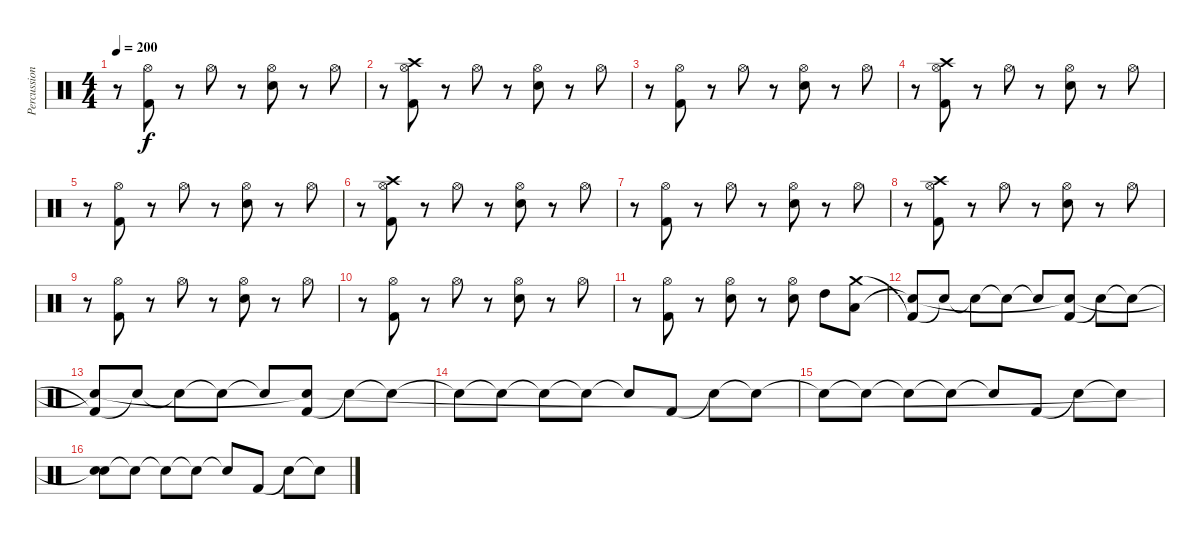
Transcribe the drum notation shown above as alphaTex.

\track ("Percussion" "Percussion") {instrument percussion}
\staff {score}
\articulation defaults
\ts (4 4)
\tempo 200
\clef neutral
\ks c
r.8{dy f} ("Kick (hit) 2" "Hi-Hat (open)").8 r.8 "Hi-Hat (open)".8 r.8 ("Snare (hit) 2" "Hi-Hat (open)").8 r.8 "Hi-Hat (open)".8 |
r.8 ("Kick (hit) 2" "Hi-Hat (open)" "Crash high (hit)").8 r.8 "Hi-Hat (open)".8 r.8 ("Snare (hit) 2" "Hi-Hat (open)").8 r.8 "Hi-Hat (open)".8 |
r.8 ("Kick (hit) 2" "Hi-Hat (open)").8 r.8 "Hi-Hat (open)".8 r.8 ("Snare (hit) 2" "Hi-Hat (open)").8 r.8 "Hi-Hat (open)".8 |
r.8 ("Kick (hit) 2" "Hi-Hat (open)" "Crash high (hit)").8 r.8 "Hi-Hat (open)".8 r.8 ("Snare (hit) 2" "Hi-Hat (open)").8 r.8 "Hi-Hat (open)".8 |
r.8 ("Kick (hit) 2" "Hi-Hat (open)").8 r.8 "Hi-Hat (open)".8 r.8 ("Snare (hit) 2" "Hi-Hat (open)").8 r.8 "Hi-Hat (open)".8 |
r.8 ("Kick (hit) 2" "Hi-Hat (open)" "Crash high (hit)").8 r.8 "Hi-Hat (open)".8 r.8 ("Snare (hit) 2" "Hi-Hat (open)").8 r.8 "Hi-Hat (open)".8 |
r.8 ("Kick (hit) 2" "Hi-Hat (open)").8 r.8 "Hi-Hat (open)".8 r.8 ("Snare (hit) 2" "Hi-Hat (open)").8 r.8 "Hi-Hat (open)".8 |
r.8 ("Kick (hit) 2" "Hi-Hat (open)" "Crash high (hit)").8 r.8 "Hi-Hat (open)".8 r.8 ("Snare (hit) 2" "Hi-Hat (open)").8 r.8 "Hi-Hat (open)".8 |
r.8 ("Kick (hit) 2" "Hi-Hat (open)").8 r.8 "Hi-Hat (open)".8 r.8 ("Snare (hit) 2" "Hi-Hat (open)").8 r.8 "Hi-Hat (open)".8 |
r.8 ("Kick (hit) 2" "Hi-Hat (open)").8 r.8 "Hi-Hat (open)".8 r.8 ("Snare (hit) 2" "Hi-Hat (open)").8 r.8 "Hi-Hat (open)".8 |
r.8 ("Kick (hit) 2" "Hi-Hat (open)").8 r.8 ("Snare (hit) 2" "Hi-Hat (open)").8 r.8 ("Snare (hit) 2" "Hi-Hat (open)").8 "High Tom (hit)".8 ("Crash medium (hit)" "Low Floor Tom (hit)").8 |
("Kick (hit) 2"{t} "Snare (hit)"{t}).8 "Snare (hit)"{t}.8 "Snare (hit)"{t}.8 "Snare (hit)"{t}.8 "Snare (hit)"{t}.8 ("Kick (hit) 2" "Snare (hit)"{t}).8 "Snare (hit)"{t}.8 "Snare (hit)"{t}.8 |
("Kick (hit) 2"{t} "Snare (hit)"{t}).8 "Snare (hit)"{t}.8 "Snare (hit)"{t}.8 "Snare (hit)"{t}.8 "Snare (hit)"{t}.8 ("Kick (hit) 2" "Snare (hit)"{t}).8 "Snare (hit)"{t}.8 "Snare (hit)"{t}.8 |
"Snare (hit)"{t}.8 "Snare (hit)"{t}.8 "Snare (hit)"{t}.8 "Snare (hit)"{t}.8 "Snare (hit)"{t}.8 "Kick (hit) 2".8 "Snare (hit)"{t}.8 "Snare (hit)"{t}.8 |
"Snare (hit)"{t}.8 "Snare (hit)"{t}.8 "Snare (hit)"{t}.8 "Hand Clap (hit)"{t}.8 "Snare (hit)"{t}.8 "Kick (hit) 2".8 "Snare (hit)"{t}.8 "Snare (hit)"{t}.8 |
("Electric Snare (hit)" "Snare (hit)"{t}).8 "Snare (hit)"{t}.8 "Snare (hit)"{t}.8 "Snare (hit)"{t}.8 "Snare (hit)"{t}.8 "Kick (hit) 2".8 "Hand Clap (hit)"{t}.8 "Snare (hit)"{t}.8
